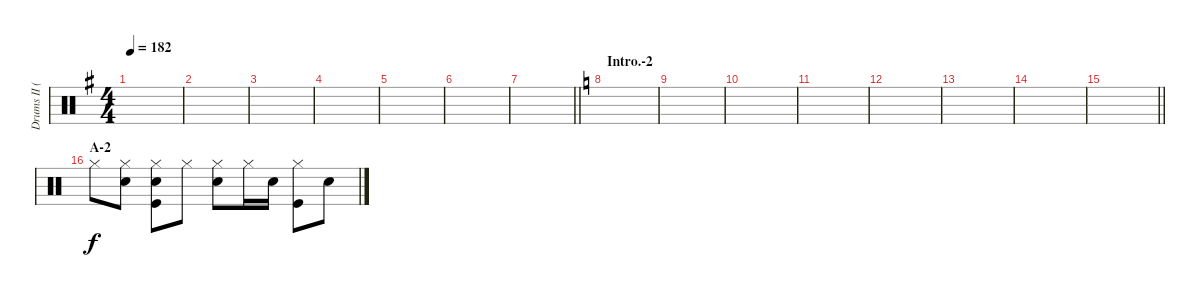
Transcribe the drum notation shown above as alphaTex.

\track ("Drums II (Tainaka Ritsu)" "Drums II (") {instrument percussion}
\staff {score}
\articulation defaults
\ts (4 4)
\tempo 182
\clef neutral
\ks g
|
|
|
|
|
|
\barLineRight lightlight
|
\section ("" "Intro.-2")
\ks c
|
|
|
|
|
|
|
\barLineRight lightlight
|
\section ("" "A-2")
"Hi-Hat (closed)".8 ("Hi-Hat (closed)" "Snare (hit) 2").8 ("Hi-Hat (closed)" "Snare (hit) 2" "Kick (hit)").8 "Hi-Hat (closed)".8 ("Hi-Hat (closed)" "Snare (hit) 2").8 "Hi-Hat (closed)".16 "Snare (hit) 2".16 ("Hi-Hat (closed)" "Kick (hit)").8 "Snare (hit) 2".8
